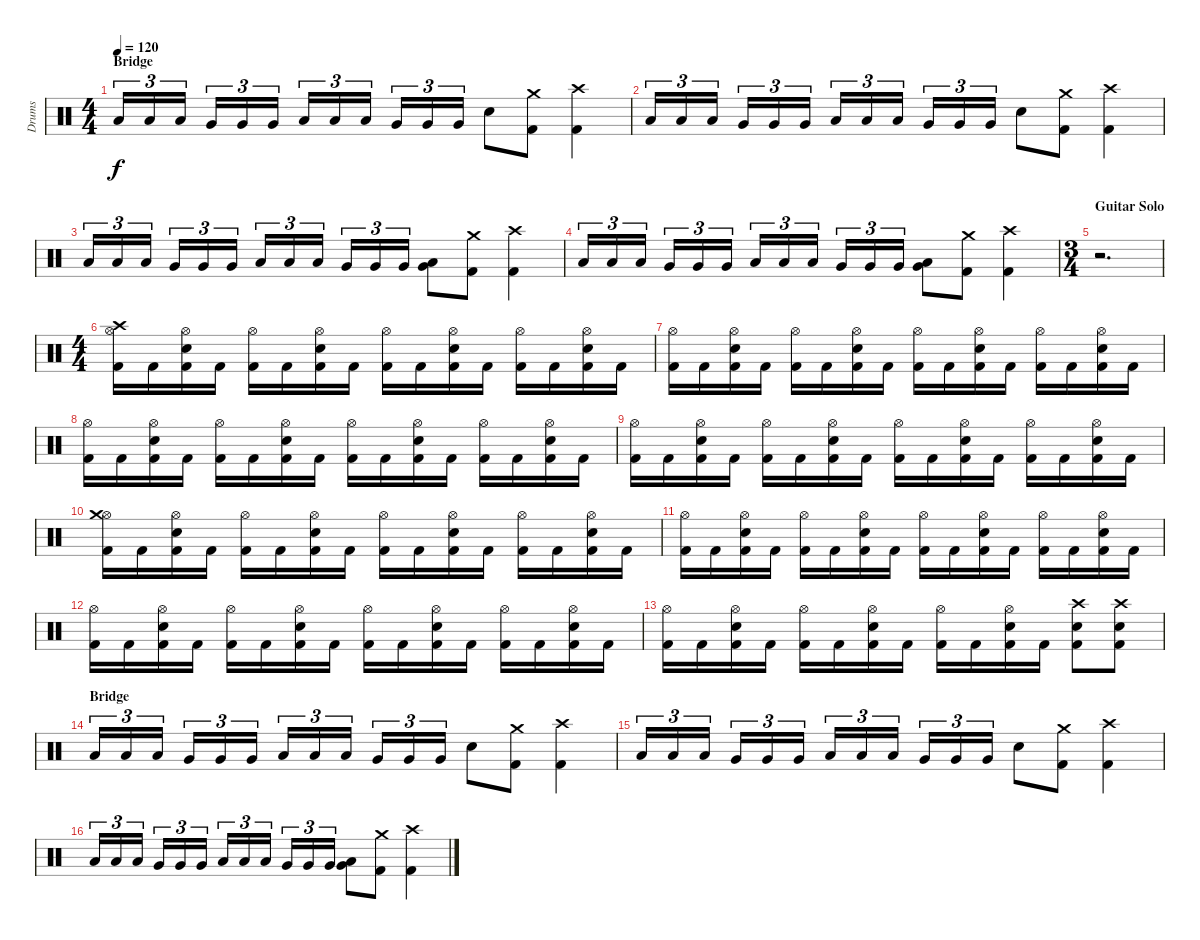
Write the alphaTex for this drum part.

\track ("Drums" "Drums") {instrument percussion}
\staff {score}
\articulation defaults
\ts (4 4)
\section ("" "Bridge")
\tempo 120
\clef neutral
\ks c "Low Tom (hit)".16{tu (3 2) dy f} "Low Tom (hit)".16{tu (3 2)} "Low Tom (hit)".16{tu (3 2)} "Very Low Tom (hit)".16{tu (3 2)} "Very Low Tom (hit)".16{tu (3 2)} "Very Low Tom (hit)".16{tu (3 2)} "Low Floor Tom (hit)".16{tu (3 2)} "Low Floor Tom (hit)".16{tu (3 2)} "Low Floor Tom (hit)".16{tu (3 2)} "Very Low Tom (hit)".16{tu (3 2)} "Very Low Tom (hit)".16{tu (3 2)} "Very Low Tom (hit)".16{tu (3 2)} "Snare (hit) 2".8
("Kick (hit) 2" "Crash medium (hit)").8 ("Kick (hit) 2" "Crash high (hit)").4 |
"Low Tom (hit)".16{tu (3 2)} "Low Tom (hit)".16{tu (3 2)} "Low Tom (hit)".16{tu (3 2)} "Very Low Tom (hit)".16{tu (3 2)} "Very Low Tom (hit)".16{tu (3 2)} "Very Low Tom (hit)".16{tu (3 2)} "Low Floor Tom (hit)".16{tu (3 2)} "Low Floor Tom (hit)".16{tu (3 2)} "Low Floor Tom (hit)".16{tu (3 2)} "Very Low Tom (hit)".16{tu (3 2)} "Very Low Tom (hit)".16{tu (3 2)} "Very Low Tom (hit)".16{tu (3 2)} "Snare (hit) 2".8 ("Kick (hit) 2" "Crash medium (hit)").8 ("Kick (hit) 2" "Crash high (hit)").4 |
"Low Tom (hit)".16{tu (3 2)} "Low Tom (hit)".16{tu (3 2)} "Low Tom (hit)".16{tu (3 2)} "Very Low Tom (hit)".16{tu (3 2)} "Very Low Tom (hit)".16{tu (3 2)} "Very Low Tom (hit)".16{tu (3 2)} "Low Floor Tom (hit)".16{tu (3 2)} "Low Floor Tom (hit)".16{tu (3 2)} "Low Floor Tom (hit)".16{tu (3 2)} "Very Low Tom (hit)".16{tu (3 2)} "Very Low Tom (hit)".16{tu (3 2)} "Very Low Tom (hit)".16{tu (3 2)} ("Low Tom (hit)" "Very Low Tom (hit)").8 ("Kick (hit) 2" "Crash medium (hit)").8 ("Kick (hit) 2" "Crash high (hit)").4 |
"Low Tom (hit)".16{tu (3 2)} "Low Tom (hit)".16{tu (3 2)} "Low Tom (hit)".16{tu (3 2)} "Very Low Tom (hit)".16{tu (3 2)} "Very Low Tom (hit)".16{tu (3 2)} "Very Low Tom (hit)".16{tu (3 2)} "Low Floor Tom (hit)".16{tu (3 2)} "Low Floor Tom (hit)".16{tu (3 2)} "Low Floor Tom (hit)".16{tu (3 2)} "Very Low Tom (hit)".16{tu (3 2)} "Very Low Tom (hit)".16{tu (3 2)} "Very Low Tom (hit)".16{tu (3 2)} ("Low Tom (hit)" "Very Low Tom (hit)").8 ("Kick (hit) 2" "Crash medium (hit)").8 ("Kick (hit) 2" "Crash high (hit)").4 |
\ts (3 4)
\section ("" "Guitar Solo")
r.2{d} |
\ts (4 4)
("Hi-Hat (open)" "Kick (hit) 2" "Crash high (hit)").16 "Kick (hit) 2".16 ("Hi-Hat (open)" "Snare (hit) 2" "Kick (hit) 2").16 "Kick (hit) 2".16 ("Hi-Hat (open)" "Kick (hit) 2").16 "Kick (hit) 2".16 ("Hi-Hat (open)" "Snare (hit) 2" "Kick (hit) 2").16 "Kick (hit) 2".16 ("Hi-Hat (open)" "Kick (hit) 2").16 "Kick (hit) 2".16 ("Hi-Hat (open)" "Snare (hit) 2" "Kick (hit) 2").16 "Kick (hit) 2".16 ("Hi-Hat (open)" "Kick (hit) 2").16 "Kick (hit) 2".16 ("Hi-Hat (open)" "Snare (hit) 2" "Kick (hit) 2").16 "Kick (hit) 2".16 |
("Hi-Hat (open)" "Kick (hit) 2").16 "Kick (hit) 2".16 ("Hi-Hat (open)" "Snare (hit) 2" "Kick (hit) 2").16 "Kick (hit) 2".16 ("Hi-Hat (open)" "Kick (hit) 2").16 "Kick (hit) 2".16 ("Hi-Hat (open)" "Snare (hit) 2" "Kick (hit) 2").16 "Kick (hit) 2".16 ("Hi-Hat (open)" "Kick (hit) 2").16 "Kick (hit) 2".16 ("Hi-Hat (open)" "Snare (hit) 2" "Kick (hit) 2").16 "Kick (hit) 2".16 ("Hi-Hat (open)" "Kick (hit) 2").16 "Kick (hit) 2".16 ("Hi-Hat (open)" "Snare (hit) 2" "Kick (hit) 2").16 "Kick (hit) 2".16 |
("Hi-Hat (open)" "Kick (hit) 2").16 "Kick (hit) 2".16 ("Hi-Hat (open)" "Snare (hit) 2" "Kick (hit) 2").16 "Kick (hit) 2".16 ("Hi-Hat (open)" "Kick (hit) 2").16 "Kick (hit) 2".16 ("Hi-Hat (open)" "Snare (hit) 2" "Kick (hit) 2").16 "Kick (hit) 2".16 ("Hi-Hat (open)" "Kick (hit) 2").16 "Kick (hit) 2".16 ("Hi-Hat (open)" "Snare (hit) 2" "Kick (hit) 2").16 "Kick (hit) 2".16 ("Hi-Hat (open)" "Kick (hit) 2").16 "Kick (hit) 2".16 ("Hi-Hat (open)" "Snare (hit) 2" "Kick (hit) 2").16 "Kick (hit) 2".16 |
("Hi-Hat (open)" "Kick (hit) 2").16 "Kick (hit) 2".16 ("Hi-Hat (open)" "Snare (hit) 2" "Kick (hit) 2").16 "Kick (hit) 2".16 ("Hi-Hat (open)" "Kick (hit) 2").16 "Kick (hit) 2".16 ("Hi-Hat (open)" "Snare (hit) 2" "Kick (hit) 2").16 "Kick (hit) 2".16 ("Hi-Hat (open)" "Kick (hit) 2").16 "Kick (hit) 2".16 ("Hi-Hat (open)" "Snare (hit) 2" "Kick (hit) 2").16 "Kick (hit) 2".16 ("Hi-Hat (open)" "Kick (hit) 2").16 "Kick (hit) 2".16 ("Hi-Hat (open)" "Snare (hit) 2" "Kick (hit) 2").16 "Kick (hit) 2".16 |
("Hi-Hat (open)" "Kick (hit) 2" "Crash medium (hit)").16 "Kick (hit) 2".16 ("Hi-Hat (open)" "Snare (hit) 2" "Kick (hit) 2").16 "Kick (hit) 2".16 ("Hi-Hat (open)" "Kick (hit) 2").16 "Kick (hit) 2".16 ("Hi-Hat (open)" "Snare (hit) 2" "Kick (hit) 2").16 "Kick (hit) 2".16 ("Hi-Hat (open)" "Kick (hit) 2").16 "Kick (hit) 2".16 ("Hi-Hat (open)" "Snare (hit) 2" "Kick (hit) 2").16 "Kick (hit) 2".16 ("Hi-Hat (open)" "Kick (hit) 2").16 "Kick (hit) 2".16 ("Hi-Hat (open)" "Snare (hit) 2" "Kick (hit) 2").16 "Kick (hit) 2".16 |
("Hi-Hat (open)" "Kick (hit) 2").16 "Kick (hit) 2".16 ("Hi-Hat (open)" "Snare (hit) 2" "Kick (hit) 2").16 "Kick (hit) 2".16 ("Hi-Hat (open)" "Kick (hit) 2").16 "Kick (hit) 2".16 ("Hi-Hat (open)" "Snare (hit) 2" "Kick (hit) 2").16 "Kick (hit) 2".16 ("Hi-Hat (open)" "Kick (hit) 2").16 "Kick (hit) 2".16 ("Hi-Hat (open)" "Snare (hit) 2" "Kick (hit) 2").16 "Kick (hit) 2".16 ("Hi-Hat (open)" "Kick (hit) 2").16 "Kick (hit) 2".16 ("Hi-Hat (open)" "Snare (hit) 2" "Kick (hit) 2").16 "Kick (hit) 2".16 |
("Hi-Hat (open)" "Kick (hit) 2").16 "Kick (hit) 2".16 ("Hi-Hat (open)" "Snare (hit) 2" "Kick (hit) 2").16 "Kick (hit) 2".16 ("Hi-Hat (open)" "Kick (hit) 2").16 "Kick (hit) 2".16 ("Hi-Hat (open)" "Snare (hit) 2" "Kick (hit) 2").16 "Kick (hit) 2".16 ("Hi-Hat (open)" "Kick (hit) 2").16 "Kick (hit) 2".16 ("Hi-Hat (open)" "Snare (hit) 2" "Kick (hit) 2").16 "Kick (hit) 2".16 ("Hi-Hat (open)" "Kick (hit) 2").16 "Kick (hit) 2".16 ("Hi-Hat (open)" "Snare (hit) 2" "Kick (hit) 2").16 "Kick (hit) 2".16 |
("Hi-Hat (open)" "Kick (hit) 2").16 "Kick (hit) 2".16 ("Hi-Hat (open)" "Snare (hit) 2" "Kick (hit) 2").16 "Kick (hit) 2".16 ("Hi-Hat (open)" "Kick (hit) 2").16 "Kick (hit) 2".16 ("Hi-Hat (open)" "Snare (hit) 2" "Kick (hit) 2").16 "Kick (hit) 2".16 ("Hi-Hat (open)" "Kick (hit) 2").16 "Kick (hit) 2".16 ("Hi-Hat (open)" "Snare (hit) 2" "Kick (hit) 2").16 "Kick (hit) 2".16 ("Snare (hit) 2" "Kick (hit) 2" "Crash high (hit)").8 ("Snare (hit) 2" "Kick (hit) 2" "Crash high (hit)").8 |
\section ("" "Bridge")
"Low Tom (hit)".16{tu (3 2)} "Low Tom (hit)".16{tu (3 2)} "Low Tom (hit)".16{tu (3 2)} "Very Low Tom (hit)".16{tu (3 2)} "Very Low Tom (hit)".16{tu (3 2)} "Very Low Tom (hit)".16{tu (3 2)} "Low Floor Tom (hit)".16{tu (3 2)} "Low Floor Tom (hit)".16{tu (3 2)} "Low Floor Tom (hit)".16{tu (3 2)} "Very Low Tom (hit)".16{tu (3 2)} "Very Low Tom (hit)".16{tu (3 2)} "Very Low Tom (hit)".16{tu (3 2)} "Snare (hit) 2".8 ("Kick (hit) 2" "Crash medium (hit)").8 ("Kick (hit) 2" "Crash high (hit)").4 |
"Low Tom (hit)".16{tu (3 2)} "Low Tom (hit)".16{tu (3 2)} "Low Tom (hit)".16{tu (3 2)} "Very Low Tom (hit)".16{tu (3 2)} "Very Low Tom (hit)".16{tu (3 2)} "Very Low Tom (hit)".16{tu (3 2)} "Low Floor Tom (hit)".16{tu (3 2)} "Low Floor Tom (hit)".16{tu (3 2)} "Low Floor Tom (hit)".16{tu (3 2)} "Very Low Tom (hit)".16{tu (3 2)} "Very Low Tom (hit)".16{tu (3 2)} "Very Low Tom (hit)".16{tu (3 2)} "Snare (hit) 2".8 ("Kick (hit) 2" "Crash medium (hit)").8 ("Kick (hit) 2" "Crash high (hit)").4 |
"Low Tom (hit)".16{tu (3 2)} "Low Tom (hit)".16{tu (3 2)} "Low Tom (hit)".16{tu (3 2)} "Very Low Tom (hit)".16{tu (3 2)} "Very Low Tom (hit)".16{tu (3 2)} "Very Low Tom (hit)".16{tu (3 2)} "Low Floor Tom (hit)".16{tu (3 2)} "Low Floor Tom (hit)".16{tu (3 2)} "Low Floor Tom (hit)".16{tu (3 2)} "Very Low Tom (hit)".16{tu (3 2)} "Very Low Tom (hit)".16{tu (3 2)} "Very Low Tom (hit)".16{tu (3 2)} ("Low Tom (hit)" "Very Low Tom (hit)").8 ("Kick (hit) 2" "Crash medium (hit)").8 ("Kick (hit) 2" "Crash high (hit)").4
